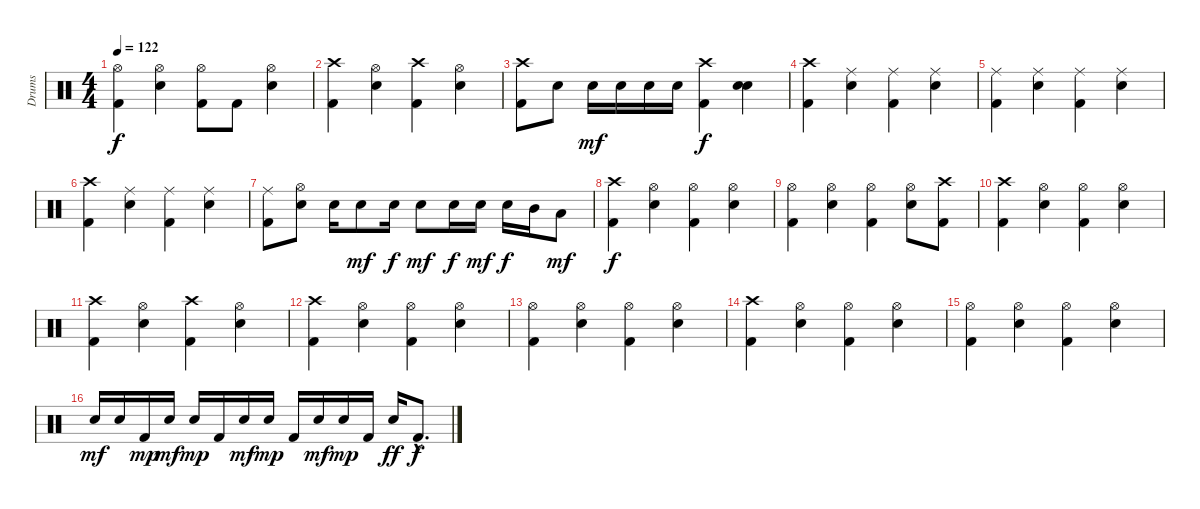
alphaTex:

\track ("Drums" "Drums") {instrument percussion}
\staff {score}
\articulation defaults
\ts (4 4)
\tempo 122
\clef neutral
\ks c
("Kick (hit) 2" "Hi-Hat (open)").4{dy f} ("Electric Snare (hit)" "Hi-Hat (open)").4 ("Kick (hit) 2" "Hi-Hat (open)").8 "Kick (hit) 2".8 ("Electric Snare (hit)" "Hi-Hat (open)").4 |
("Kick (hit) 2" "Crash high (hit)").4 ("Electric Snare (hit)" "Hi-Hat (open)").4 ("Kick (hit) 2" "Crash high (hit)").4 ("Electric Snare (hit)" "Hi-Hat (open)").4 |
("Kick (hit) 2" "Crash high (hit)").8 "Electric Snare (hit)".8 "Electric Snare (hit)".16{dy mf} "Electric Snare (hit)".16 "Electric Snare (hit)".16 "Electric Snare (hit)".16 ("Kick (hit) 2" "Crash high (hit)").4{dy f} ("Electric Snare (hit)" "Electric Snare (hit)").4 |
("Kick (hit) 2" "Crash high (hit)").4 ("Electric Snare (hit)" "Ride (middle)").4 ("Kick (hit) 2" "Ride (middle)").4 ("Electric Snare (hit)" "Ride (middle)").4 |
("Kick (hit) 2" "Ride (middle)").4 ("Electric Snare (hit)" "Ride (middle)").4 ("Kick (hit) 2" "Ride (middle)").4 ("Electric Snare (hit)" "Ride (middle)").4 |
("Kick (hit) 2" "Crash high (hit)").4 ("Electric Snare (hit)" "Ride (middle)").4 ("Kick (hit) 2" "Ride (middle)").4 ("Electric Snare (hit)" "Ride (middle)").4 |
("Ride (middle)" "Kick (hit) 2").8 ("Hi-Hat (open)" "Electric Snare (hit)").8 "Electric Snare (hit)".16 "Electric Snare (hit)".8{dy mf} "Electric Snare (hit)".16{dy f} "Electric Snare (hit)".8{dy mf} "Electric Snare (hit)".16{dy f} "Electric Snare (hit)".16{dy mf} "Electric Snare (hit)".16{dy f} "Mid Tom (hit)".16 "Low Tom (hit)".8{dy mf} |
("Crash high (hit)" "Kick (hit) 2").4{dy f} ("Electric Snare (hit)" "Hi-Hat (open)").4 ("Kick (hit) 2" "Hi-Hat (open)").4 ("Electric Snare (hit)" "Hi-Hat (open)").4 |
("Kick (hit) 2" "Hi-Hat (open)").4 ("Electric Snare (hit)" "Hi-Hat (open)").4 ("Kick (hit) 2" "Hi-Hat (open)").4 ("Electric Snare (hit)" "Hi-Hat (open)").8 ("Crash high (hit)" "Kick (hit) 2").8 |
("Crash high (hit)" "Kick (hit) 2").4 ("Electric Snare (hit)" "Hi-Hat (open)").4 ("Kick (hit) 2" "Hi-Hat (open)").4 ("Electric Snare (hit)" "Hi-Hat (open)").4 |
("Kick (hit) 2" "Crash high (hit)").4 ("Electric Snare (hit)" "Hi-Hat (open)").4 ("Kick (hit) 2" "Crash high (hit)").4 ("Electric Snare (hit)" "Hi-Hat (open)").4 |
("Crash high (hit)" "Kick (hit) 2").4 ("Electric Snare (hit)" "Hi-Hat (open)").4 ("Kick (hit) 2" "Hi-Hat (open)").4 ("Electric Snare (hit)" "Hi-Hat (open)").4 |
("Kick (hit) 2" "Hi-Hat (open)").4 ("Electric Snare (hit)" "Hi-Hat (open)").4 ("Kick (hit) 2" "Hi-Hat (open)").4 ("Electric Snare (hit)" "Hi-Hat (open)").4 |
("Crash high (hit)" "Kick (hit) 2").4 ("Electric Snare (hit)" "Hi-Hat (open)").4 ("Kick (hit) 2" "Hi-Hat (open)").4 ("Electric Snare (hit)" "Hi-Hat (open)").4 |
("Kick (hit) 2" "Hi-Hat (open)").4 ("Electric Snare (hit)" "Hi-Hat (open)").4 ("Kick (hit) 2" "Hi-Hat (open)").4 ("Electric Snare (hit)" "Hi-Hat (open)").4 |
"Electric Snare (hit)".16{dy mf} "Electric Snare (hit)".16 "Kick (hit) 2".16{dy mp} "Electric Snare (hit)".16{dy mf} "Electric Snare (hit)".16{dy mp} "Kick (hit) 2".16 "Electric Snare (hit)".16{dy mf} "Electric Snare (hit)".16{dy mp} "Kick (hit) 2".16 "Electric Snare (hit)".16{dy mf} "Electric Snare (hit)".16{dy mp} "Kick (hit) 2".16 "Electric Snare (hit)".16{dy ff} "Kick (hit) 2"{hac}.8{d dy f}
